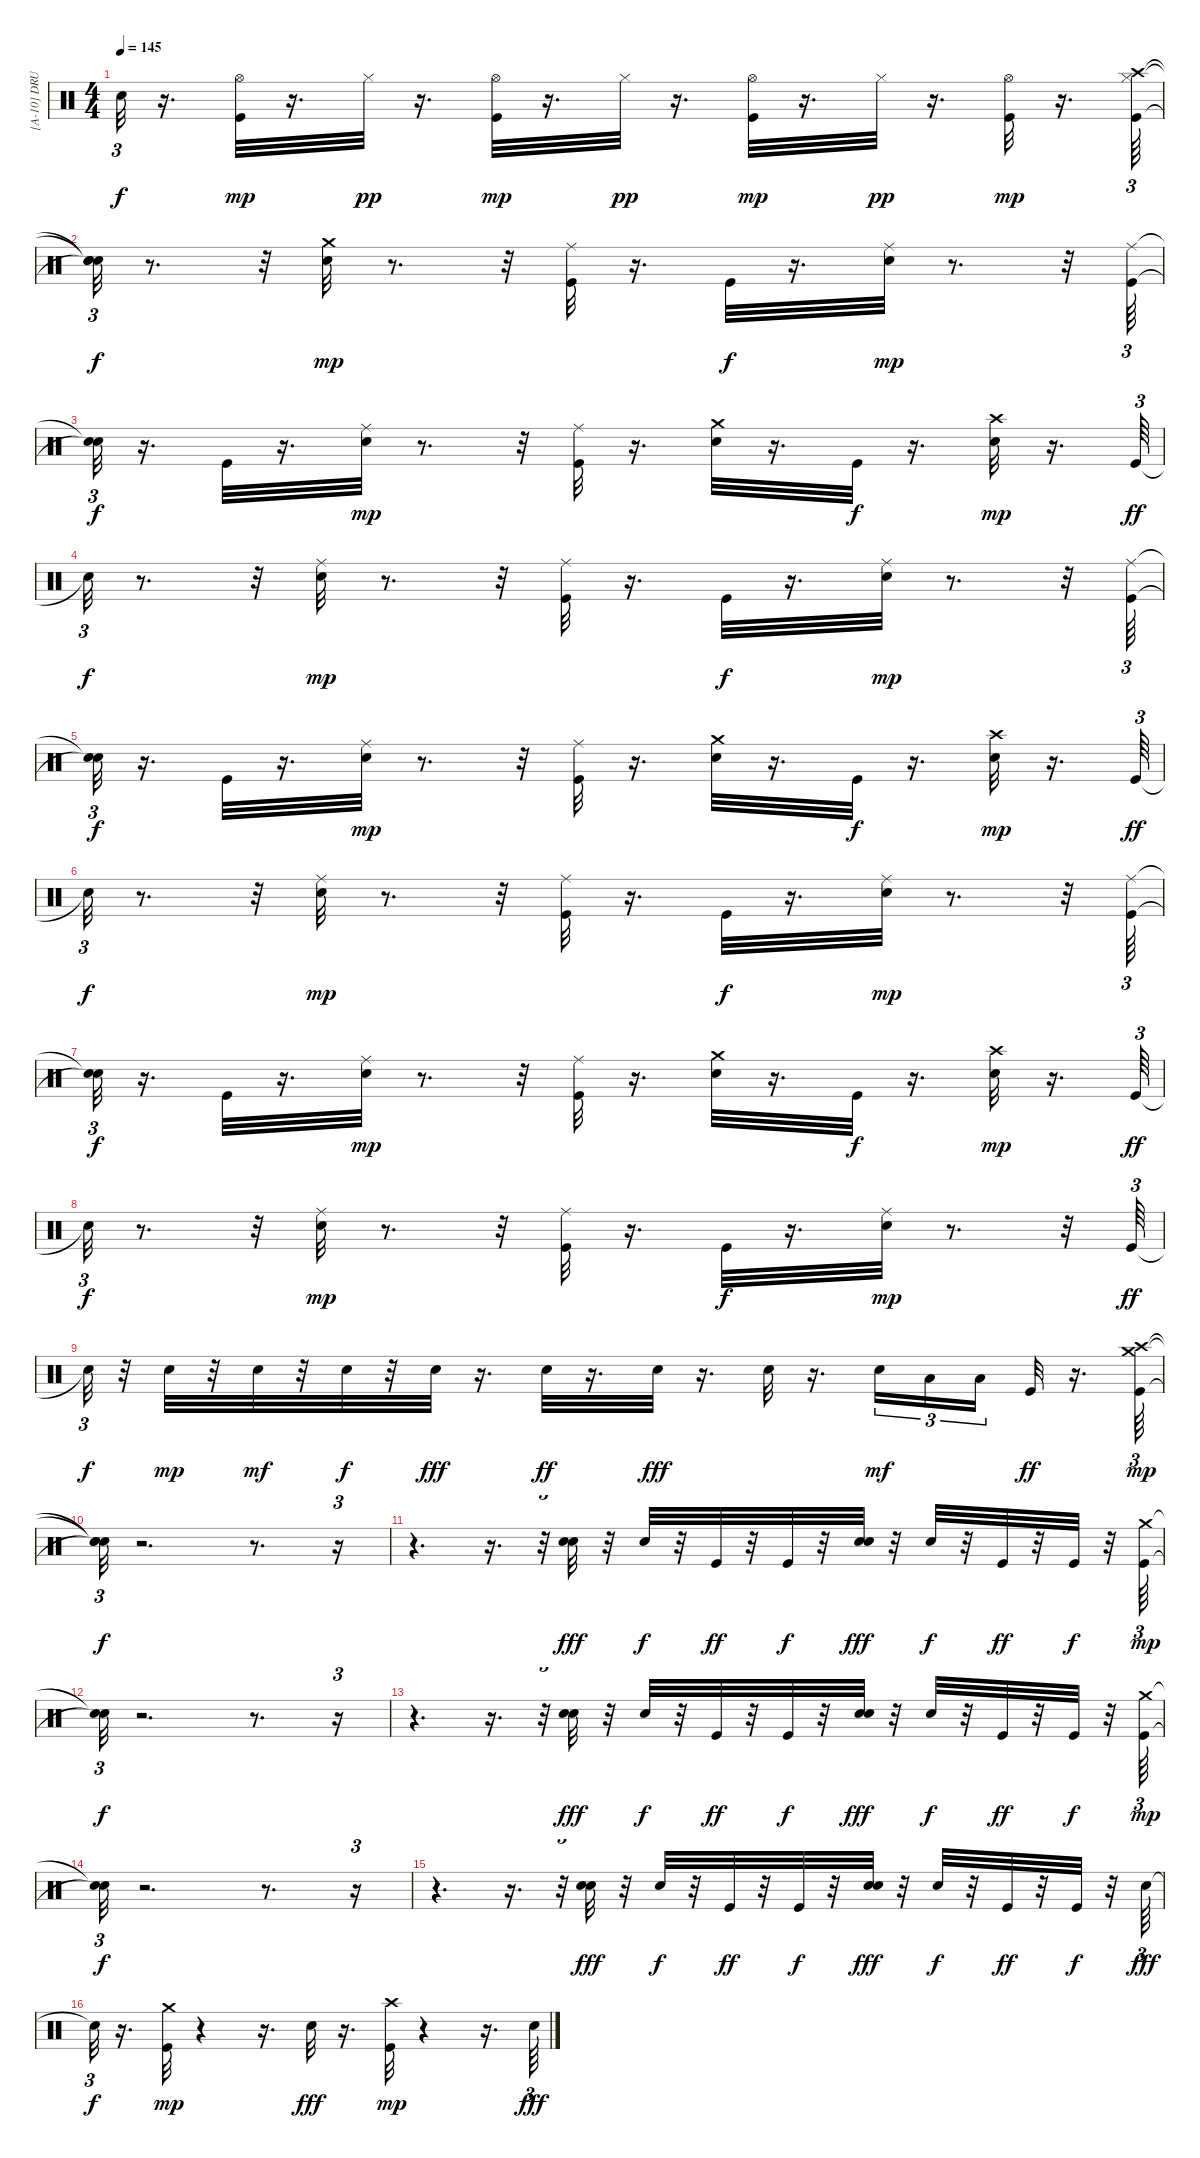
\track ("[A-10] DRUMS" "[A-10] DRU") {instrument percussion}
\staff {score}
\articulation defaults
\ts (4 4)
\tempo 145
\clef neutral
\ks c "Snare (hit)"{t}.32{tu (3 2) dy f}
r.16{d} ("Kick (hit)" "Hi-Hat (open)").32{dy mp} r.16{d} "Hi-Hat (closed)".32{dy pp} r.16{d} ("Kick (hit)" "Hi-Hat (open)").32{dy mp} r.16{d} "Hi-Hat (closed)".32{dy pp} r.16{d} ("Kick (hit)" "Hi-Hat (open)").32{dy mp} r.16{d} "Hi-Hat (closed)".32{dy pp} r.16{d} ("Kick (hit)" "Hi-Hat (open)").32{dy mp} r.16{d} ("Kick (hit)" "Hi-Hat (closed)" "Crash high (hit)").64{tu (3 2)} |
("Snare (hit)"{t} "Snare (hit)"{t} "Snare (hit)"{t}).32{tu (3 2) dy f} r.8{d} r.32 ("Snare (hit) 2" "Crash medium (hit)").32{dy mp} r.8{d} r.32 ("Kick (hit)" "Ride (middle)").32 r.16{d} "Kick (hit)".32{dy f} r.16{d} ("Snare (hit) 2" "Ride (middle)").32{dy mp} r.8{d} r.32 ("Kick (hit)" "Ride (middle)").64{tu (3 2)} |
("Snare (hit)"{t} "Snare (hit)"{t}).32{tu (3 2) dy f} r.16{d} "Kick (hit)".32 r.16{d} ("Snare (hit) 2" "Ride (middle)").32{dy mp} r.8{d} r.32 ("Kick (hit)" "Ride (middle)").32 r.16{d} ("Snare (hit) 2" "Crash medium (hit)").32 r.16{d} "Kick (hit)".32{dy f} r.16{d} ("Snare (hit) 2" "Crash high (hit)").32{dy mp} r.16{d} "Kick (hit)".64{tu (3 2) dy ff} |
"Snare (hit)"{t}.32{tu (3 2) dy f} r.8{d} r.32 ("Snare (hit) 2" "Ride (middle)").32{dy mp} r.8{d} r.32 ("Kick (hit)" "Ride (middle)").32 r.16{d} "Kick (hit)".32{dy f} r.16{d} ("Snare (hit) 2" "Ride (middle)").32{dy mp} r.8{d} r.32 ("Kick (hit)" "Ride (middle)").64{tu (3 2)} |
("Snare (hit)"{t} "Snare (hit)"{t}).32{tu (3 2) dy f} r.16{d} "Kick (hit)".32 r.16{d} ("Snare (hit) 2" "Ride (middle)").32{dy mp} r.8{d} r.32 ("Kick (hit)" "Ride (middle)").32 r.16{d} ("Snare (hit) 2" "Crash medium (hit)").32 r.16{d} "Kick (hit)".32{dy f} r.16{d} ("Snare (hit) 2" "Crash high (hit)").32{dy mp} r.16{d} "Kick (hit)".64{tu (3 2) dy ff} |
"Snare (hit)"{t}.32{tu (3 2) dy f} r.8{d} r.32 ("Snare (hit) 2" "Ride (middle)").32{dy mp} r.8{d} r.32 ("Kick (hit)" "Ride (middle)").32 r.16{d} "Kick (hit)".32{dy f} r.16{d} ("Snare (hit) 2" "Ride (middle)").32{dy mp} r.8{d} r.32 ("Kick (hit)" "Ride (middle)").64{tu (3 2)} |
("Snare (hit)"{t} "Snare (hit)"{t}).32{tu (3 2) dy f} r.16{d} "Kick (hit)".32 r.16{d} ("Snare (hit) 2" "Ride (middle)").32{dy mp} r.8{d} r.32 ("Kick (hit)" "Ride (middle)").32 r.16{d} ("Snare (hit) 2" "Crash medium (hit)").32 r.16{d} "Kick (hit)".32{dy f} r.16{d} ("Snare (hit) 2" "Crash high (hit)").32{dy mp} r.16{d} "Kick (hit)".64{tu (3 2) dy ff} |
"Snare (hit)"{t}.32{tu (3 2) dy f} r.8{d} r.32 ("Snare (hit) 2" "Ride (middle)").32{dy mp} r.8{d} r.32 ("Kick (hit)" "Ride (middle)").32 r.16{d} "Kick (hit)".32{dy f} r.16{d} ("Snare (hit) 2" "Ride (middle)").32{dy mp} r.8{d} r.32 "Kick (hit)".64{tu (3 2) dy ff} |
"Snare (hit)"{t}.32{tu (3 2) dy f} r.32 "Snare (hit) 2".32{dy mp} r.32 "Snare (hit) 2".32{dy mf} r.32 "Snare (hit) 2".32{dy f} r.32 "Snare (hit) 2".32{dy fff} r.16{d} "Snare (hit) 2".32{dy ff} r.16{d} "Snare (hit) 2".32{dy fff} r.16{d} "Snare (hit) 2".32 r.16{d} "Snare (hit) 2".16{tu (3 2) dy mf} "Low Tom (hit)".16{tu (3 2)} "Low Floor Tom (hit)".16{tu (3 2) beam splitsecondary} "Kick (hit)".32{dy ff} r.16{d} ("Kick (hit)" "Crash medium (hit)" "Crash high (hit)").64{tu (3 2) dy mp} |
("Snare (hit)"{t} "Snare (hit)"{t} "Snare (hit)"{t}).32{tu (3 2) dy f} r.2{d} r.8{d} r.16{tu (3 2)} |
r.4{d} r.16{d} r.32{tu (3 2)} ("Snare (hit) 2" "Snare (hit) 2").32{dy fff} r.32 "Snare (hit) 2".32{dy f} r.32 "Kick (hit)".32{dy ff} r.32 "Kick (hit)".32{dy f} r.32 ("Snare (hit) 2" "Snare (hit) 2").32{dy fff} r.32 "Snare (hit) 2".32{dy f} r.32 "Kick (hit)".32{dy ff} r.32 "Kick (hit)".32{dy f} r.32 ("Kick (hit)" "Crash medium (hit)").64{tu (3 2) dy mp} |
("Snare (hit)"{t} "Snare (hit)"{t}).32{tu (3 2) dy f} r.2{d} r.8{d} r.16{tu (3 2)} |
r.4{d} r.16{d} r.32{tu (3 2)} ("Snare (hit) 2" "Snare (hit) 2").32{dy fff} r.32 "Snare (hit) 2".32{dy f} r.32 "Kick (hit)".32{dy ff} r.32 "Kick (hit)".32{dy f} r.32 ("Snare (hit) 2" "Snare (hit) 2").32{dy fff} r.32 "Snare (hit) 2".32{dy f} r.32 "Kick (hit)".32{dy ff} r.32 "Kick (hit)".32{dy f} r.32 ("Kick (hit)" "Crash medium (hit)").64{tu (3 2) dy mp} |
("Snare (hit)"{t} "Snare (hit)"{t}).32{tu (3 2) dy f} r.2{d} r.8{d} r.16{tu (3 2)} |
r.4{d} r.16{d} r.32{tu (3 2)} ("Snare (hit) 2" "Snare (hit) 2").32{dy fff} r.32 "Snare (hit) 2".32{dy f} r.32 "Kick (hit)".32{dy ff} r.32 "Kick (hit)".32{dy f} r.32 ("Snare (hit) 2" "Snare (hit) 2").32{dy fff} r.32 "Snare (hit) 2".32{dy f} r.32 "Kick (hit)".32{dy ff} r.32 "Kick (hit)".32{dy f} r.32 "Snare (hit) 2".64{tu (3 2) dy fff} |
"Snare (hit)"{t}.32{tu (3 2) dy f} r.16{d} ("Kick (hit)" "Crash medium (hit)").32{dy mp} r.4 r.16{d} "Snare (hit) 2".32{dy fff} r.16{d} ("Kick (hit)" "Crash high (hit)").32{dy mp} r.4 r.16{d} "Snare (hit) 2".64{tu (3 2) dy fff}
